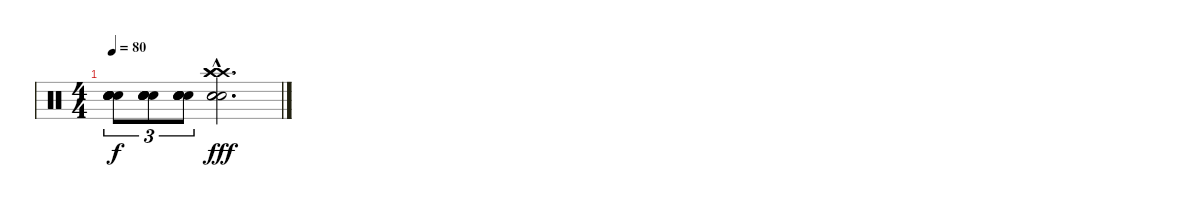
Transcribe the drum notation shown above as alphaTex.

\track "" {instrument percussion}
\staff {score}
\articulation defaults
\ts (4 4)
\tempo 80
\clef neutral
\ks c
("Snare (hit) 2" "Snare (hit) 2" "Snare (hit) 2" "Snare (hit) 2" "Snare (hit) 2" "Snare (hit) 2").8{tu (3 2) dy f} ("Snare (hit) 2" "Snare (hit) 2" "Snare (hit) 2" "Snare (hit) 2" "Snare (hit) 2" "Snare (hit) 2").8{tu (3 2)} ("Snare (hit) 2" "Snare (hit) 2" "Snare (hit) 2" "Snare (hit) 2" "Snare (hit) 2" "Snare (hit) 2").8{tu (3 2)} ("Crash high (hit)"{hac} "Crash high (hit)"{hac} "Crash high (hit)"{hac} "Snare (hit) 2"{hac} "Snare (hit) 2"{hac} "Snare (hit) 2"{hac}).2{d dy fff}
